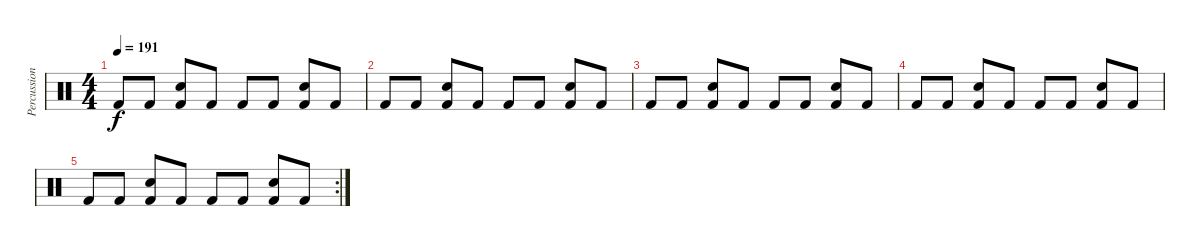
\track ("Percussion" "Percussion") {instrument percussion}
\staff {score}
\articulation defaults
\ts (4 4)
\tempo 191
\clef neutral
\ks c "Kick (hit) 2".8{dy f} "Kick (hit) 2".8
("Snare (hit) 2" "Kick (hit) 2").8 "Kick (hit) 2".8 "Kick (hit) 2".8 "Kick (hit) 2".8 ("Snare (hit) 2" "Kick (hit) 2").8 "Kick (hit) 2".8 |
"Kick (hit) 2".8 "Kick (hit) 2".8 ("Snare (hit) 2" "Kick (hit) 2").8 "Kick (hit) 2".8 "Kick (hit) 2".8 "Kick (hit) 2".8 ("Snare (hit) 2" "Kick (hit) 2").8 "Kick (hit) 2".8 |
"Kick (hit) 2".8 "Kick (hit) 2".8 ("Snare (hit) 2" "Kick (hit) 2").8 "Kick (hit) 2".8 "Kick (hit) 2".8 "Kick (hit) 2".8 ("Snare (hit) 2" "Kick (hit) 2").8 "Kick (hit) 2".8 |
"Kick (hit) 2".8 "Kick (hit) 2".8 ("Snare (hit) 2" "Kick (hit) 2").8 "Kick (hit) 2".8 "Kick (hit) 2".8 "Kick (hit) 2".8 ("Snare (hit) 2" "Kick (hit) 2").8 "Kick (hit) 2".8 |
\rc 2 "Kick (hit) 2".8 "Kick (hit) 2".8
("Snare (hit) 2" "Kick (hit) 2").8 "Kick (hit) 2".8 "Kick (hit) 2".8 "Kick (hit) 2".8 ("Snare (hit) 2" "Kick (hit) 2").8 "Kick (hit) 2".8
